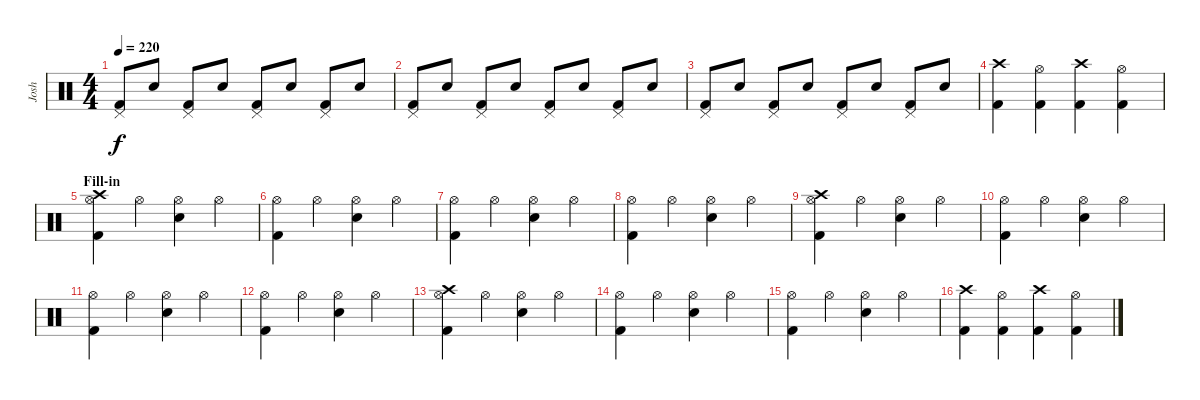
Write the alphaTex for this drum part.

\track ("Josh" "Josh") {instrument percussion}
\staff {score}
\articulation defaults
\ts (4 4)
\tempo 220
\clef neutral
\ks c
("Pedal Hi-Hat (hit)" "Kick (hit) 2").8{dy f} "Snare (hit) 2".8 ("Pedal Hi-Hat (hit)" "Kick (hit) 2").8 "Snare (hit) 2".8 ("Pedal Hi-Hat (hit)" "Kick (hit) 2").8 "Snare (hit) 2".8 ("Pedal Hi-Hat (hit)" "Kick (hit) 2").8 "Snare (hit) 2".8 |
("Pedal Hi-Hat (hit)" "Kick (hit) 2").8 "Snare (hit) 2".8 ("Pedal Hi-Hat (hit)" "Kick (hit) 2").8 "Snare (hit) 2".8 ("Pedal Hi-Hat (hit)" "Kick (hit) 2").8 "Snare (hit) 2".8 ("Pedal Hi-Hat (hit)" "Kick (hit) 2").8 "Snare (hit) 2".8 |
("Pedal Hi-Hat (hit)" "Kick (hit) 2").8 "Snare (hit) 2".8 ("Pedal Hi-Hat (hit)" "Kick (hit) 2").8 "Snare (hit) 2".8 ("Pedal Hi-Hat (hit)" "Kick (hit) 2").8 "Snare (hit) 2".8 ("Pedal Hi-Hat (hit)" "Kick (hit) 2").8 "Snare (hit) 2".8 |
("Crash high (hit)" "Kick (hit) 2").4 ("Hi-Hat (open)" "Kick (hit) 2").4 ("Crash high (hit)" "Kick (hit) 2").4 ("Hi-Hat (open)" "Kick (hit) 2").4 |
\section ("" "Fill-in")
("Hi-Hat (open)" "Crash high (hit)" "Kick (hit) 2").4 "Hi-Hat (open)".4 ("Hi-Hat (open)" "Snare (hit) 2").4 "Hi-Hat (open)".4 |
("Hi-Hat (open)" "Kick (hit) 2").4 "Hi-Hat (open)".4 ("Hi-Hat (open)" "Snare (hit) 2").4 "Hi-Hat (open)".4 |
("Hi-Hat (open)" "Kick (hit) 2").4 "Hi-Hat (open)".4 ("Hi-Hat (open)" "Snare (hit) 2").4 "Hi-Hat (open)".4 |
("Hi-Hat (open)" "Kick (hit) 2").4 "Hi-Hat (open)".4 ("Hi-Hat (open)" "Snare (hit) 2").4 "Hi-Hat (open)".4 |
("Hi-Hat (open)" "Crash high (hit)" "Kick (hit) 2").4 "Hi-Hat (open)".4 ("Hi-Hat (open)" "Snare (hit) 2").4 "Hi-Hat (open)".4 |
("Hi-Hat (open)" "Kick (hit) 2").4 "Hi-Hat (open)".4 ("Hi-Hat (open)" "Snare (hit) 2").4 "Hi-Hat (open)".4 |
("Hi-Hat (open)" "Kick (hit) 2").4 "Hi-Hat (open)".4 ("Hi-Hat (open)" "Snare (hit) 2").4 "Hi-Hat (open)".4 |
("Hi-Hat (open)" "Kick (hit) 2").4 "Hi-Hat (open)".4 ("Hi-Hat (open)" "Snare (hit) 2").4 "Hi-Hat (open)".4 |
("Hi-Hat (open)" "Crash high (hit)" "Kick (hit) 2").4 "Hi-Hat (open)".4 ("Hi-Hat (open)" "Snare (hit) 2").4 "Hi-Hat (open)".4 |
("Hi-Hat (open)" "Kick (hit) 2").4 "Hi-Hat (open)".4 ("Hi-Hat (open)" "Snare (hit) 2").4 "Hi-Hat (open)".4 |
("Hi-Hat (open)" "Kick (hit) 2").4 "Hi-Hat (open)".4 ("Hi-Hat (open)" "Snare (hit) 2").4 "Hi-Hat (open)".4 |
("Crash high (hit)" "Kick (hit) 2").4 ("Hi-Hat (open)" "Kick (hit) 2").4 ("Crash high (hit)" "Kick (hit) 2").4 ("Hi-Hat (open)" "Kick (hit) 2").4
